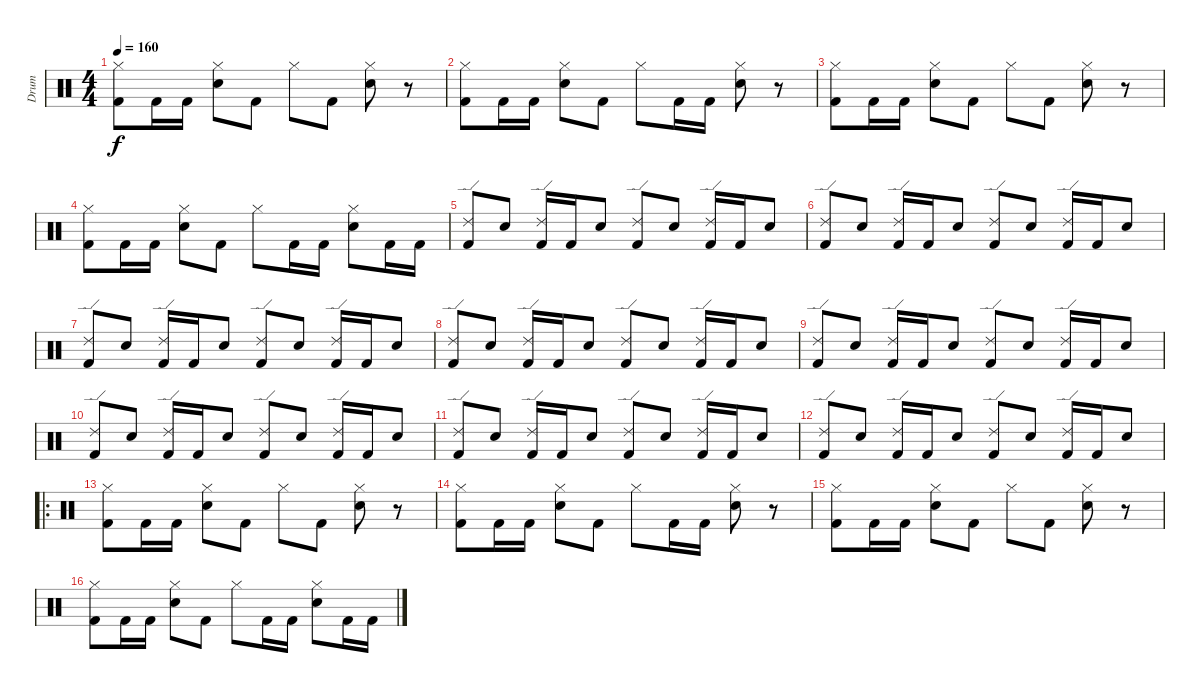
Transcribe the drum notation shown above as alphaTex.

\track ("Drum" "Drum") {instrument percussion}
\staff {score}
\articulation defaults
\ts (4 4)
\tempo 160
\clef neutral
\ks c
("Hi-Hat (closed)" "Kick (hit) 2").8{dy f} "Kick (hit) 2".16 "Kick (hit) 2".16 ("Hi-Hat (closed)" "Electric Snare (hit)").8 "Kick (hit) 2".8 "Hi-Hat (closed)".8 "Kick (hit) 2".8 ("Hi-Hat (closed)" "Electric Snare (hit)").8 r.8 |
("Hi-Hat (closed)" "Kick (hit) 2").8 "Kick (hit) 2".16 "Kick (hit) 2".16 ("Hi-Hat (closed)" "Electric Snare (hit)").8 "Kick (hit) 2".8 "Hi-Hat (closed)".8 "Kick (hit) 2".16 "Kick (hit) 2".16 ("Hi-Hat (closed)" "Electric Snare (hit)").8 r.8 |
("Hi-Hat (closed)" "Kick (hit) 2").8 "Kick (hit) 2".16 "Kick (hit) 2".16 ("Hi-Hat (closed)" "Electric Snare (hit)").8 "Kick (hit) 2".8 "Hi-Hat (closed)".8 "Kick (hit) 2".8 ("Hi-Hat (closed)" "Electric Snare (hit)").8 r.8 |
("Hi-Hat (closed)" "Kick (hit) 2").8 "Kick (hit) 2".16 "Kick (hit) 2".16 ("Hi-Hat (closed)" "Electric Snare (hit)").8 "Kick (hit) 2".8 "Hi-Hat (closed)".8 "Kick (hit) 2".16 "Kick (hit) 2".16 ("Hi-Hat (closed)" "Electric Snare (hit)").8 "Kick (hit) 2".16 "Kick (hit) 2".16 |
("Ride (edge) 2" "Kick (hit) 2").8 "Electric Snare (hit)".8 ("Ride (edge) 2" "Kick (hit) 2").16 "Kick (hit) 2".16 "Electric Snare (hit)".8 ("Ride (edge) 2" "Kick (hit) 2").8 "Electric Snare (hit)".8 ("Ride (edge) 2" "Kick (hit) 2").16 "Kick (hit) 2".16 "Electric Snare (hit)".8 |
("Ride (edge) 2" "Kick (hit) 2").8 "Electric Snare (hit)".8 ("Ride (edge) 2" "Kick (hit) 2").16 "Kick (hit) 2".16 "Electric Snare (hit)".8 ("Ride (edge) 2" "Kick (hit) 2").8 "Electric Snare (hit)".8 ("Ride (edge) 2" "Kick (hit) 2").16 "Kick (hit) 2".16 "Electric Snare (hit)".8 |
("Ride (edge) 2" "Kick (hit) 2").8 "Electric Snare (hit)".8 ("Ride (edge) 2" "Kick (hit) 2").16 "Kick (hit) 2".16 "Electric Snare (hit)".8 ("Ride (edge) 2" "Kick (hit) 2").8 "Electric Snare (hit)".8 ("Ride (edge) 2" "Kick (hit) 2").16 "Kick (hit) 2".16 "Electric Snare (hit)".8 |
("Ride (edge) 2" "Kick (hit) 2").8 "Electric Snare (hit)".8 ("Ride (edge) 2" "Kick (hit) 2").16 "Kick (hit) 2".16 "Electric Snare (hit)".8 ("Ride (edge) 2" "Kick (hit) 2").8 "Electric Snare (hit)".8 ("Ride (edge) 2" "Kick (hit) 2").16 "Kick (hit) 2".16 "Electric Snare (hit)".8 |
("Ride (edge) 2" "Kick (hit) 2").8 "Electric Snare (hit)".8 ("Ride (edge) 2" "Kick (hit) 2").16 "Kick (hit) 2".16 "Electric Snare (hit)".8 ("Ride (edge) 2" "Kick (hit) 2").8 "Electric Snare (hit)".8 ("Ride (edge) 2" "Kick (hit) 2").16 "Kick (hit) 2".16 "Electric Snare (hit)".8 |
("Ride (edge) 2" "Kick (hit) 2").8 "Electric Snare (hit)".8 ("Ride (edge) 2" "Kick (hit) 2").16 "Kick (hit) 2".16 "Electric Snare (hit)".8 ("Ride (edge) 2" "Kick (hit) 2").8 "Electric Snare (hit)".8 ("Ride (edge) 2" "Kick (hit) 2").16 "Kick (hit) 2".16 "Electric Snare (hit)".8 |
("Ride (edge) 2" "Kick (hit) 2").8 "Electric Snare (hit)".8 ("Ride (edge) 2" "Kick (hit) 2").16 "Kick (hit) 2".16 "Electric Snare (hit)".8 ("Ride (edge) 2" "Kick (hit) 2").8 "Electric Snare (hit)".8 ("Ride (edge) 2" "Kick (hit) 2").16 "Kick (hit) 2".16 "Electric Snare (hit)".8 |
("Ride (edge) 2" "Kick (hit) 2").8 "Electric Snare (hit)".8 ("Ride (edge) 2" "Kick (hit) 2").16 "Kick (hit) 2".16 "Electric Snare (hit)".8 ("Ride (edge) 2" "Kick (hit) 2").8 "Electric Snare (hit)".8 ("Ride (edge) 2" "Kick (hit) 2").16 "Kick (hit) 2".16 "Electric Snare (hit)".8 |
\ro
("Hi-Hat (closed)" "Kick (hit) 2").8 "Kick (hit) 2".16 "Kick (hit) 2".16 ("Hi-Hat (closed)" "Electric Snare (hit)").8 "Kick (hit) 2".8 "Hi-Hat (closed)".8 "Kick (hit) 2".8 ("Hi-Hat (closed)" "Electric Snare (hit)").8 r.8 |
("Hi-Hat (closed)" "Kick (hit) 2").8 "Kick (hit) 2".16 "Kick (hit) 2".16 ("Hi-Hat (closed)" "Electric Snare (hit)").8 "Kick (hit) 2".8 "Hi-Hat (closed)".8 "Kick (hit) 2".16 "Kick (hit) 2".16 ("Hi-Hat (closed)" "Electric Snare (hit)").8 r.8 |
("Hi-Hat (closed)" "Kick (hit) 2").8 "Kick (hit) 2".16 "Kick (hit) 2".16 ("Hi-Hat (closed)" "Electric Snare (hit)").8 "Kick (hit) 2".8 "Hi-Hat (closed)".8 "Kick (hit) 2".8 ("Hi-Hat (closed)" "Electric Snare (hit)").8 r.8 |
("Hi-Hat (closed)" "Kick (hit) 2").8 "Kick (hit) 2".16 "Kick (hit) 2".16 ("Hi-Hat (closed)" "Electric Snare (hit)").8 "Kick (hit) 2".8 "Hi-Hat (closed)".8 "Kick (hit) 2".16 "Kick (hit) 2".16 ("Hi-Hat (closed)" "Electric Snare (hit)").8 "Kick (hit) 2".16 "Kick (hit) 2".16
